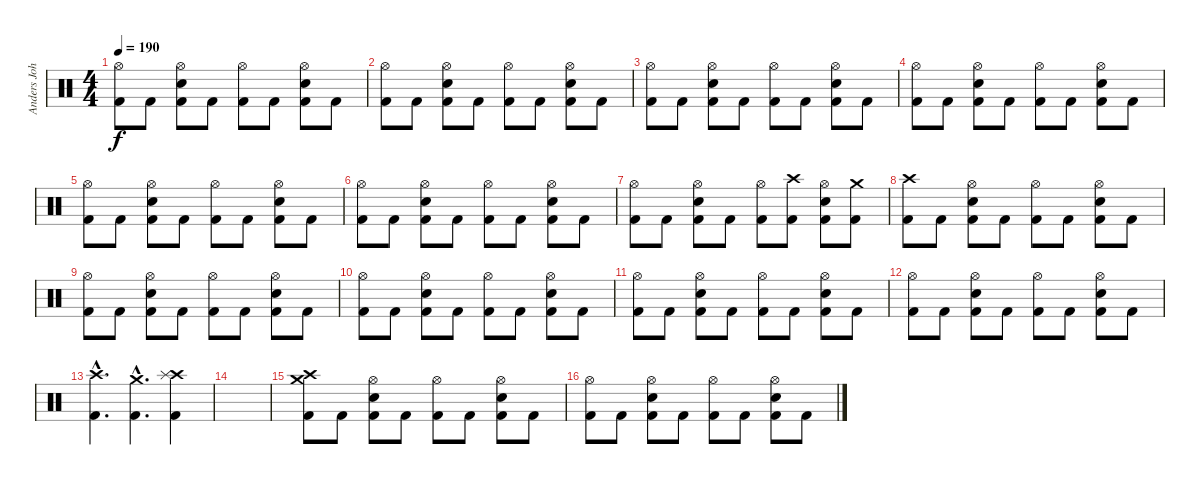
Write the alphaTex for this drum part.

\track ("Anders Johansson Drums" "Anders Joh") {instrument percussion}
\staff {score}
\articulation defaults
\ts (4 4)
\tempo 190
\clef neutral
\ks c
("Hi-Hat (open)" "Kick (hit) 2").8{dy f} "Kick (hit) 2".8 ("Hi-Hat (open)" "Snare (hit) 2" "Kick (hit) 2").8 "Kick (hit) 2".8 ("Hi-Hat (open)" "Kick (hit) 2").8 "Kick (hit) 2".8 ("Hi-Hat (open)" "Snare (hit) 2" "Kick (hit) 2").8 "Kick (hit) 2".8 |
("Hi-Hat (open)" "Kick (hit) 2").8 "Kick (hit) 2".8 ("Hi-Hat (open)" "Snare (hit) 2" "Kick (hit) 2").8 "Kick (hit) 2".8 ("Hi-Hat (open)" "Kick (hit) 2").8 "Kick (hit) 2".8 ("Hi-Hat (open)" "Snare (hit) 2" "Kick (hit) 2").8 "Kick (hit) 2".8 |
("Hi-Hat (open)" "Kick (hit) 2").8 "Kick (hit) 2".8 ("Hi-Hat (open)" "Snare (hit) 2" "Kick (hit) 2").8 "Kick (hit) 2".8 ("Hi-Hat (open)" "Kick (hit) 2").8 "Kick (hit) 2".8 ("Hi-Hat (open)" "Snare (hit) 2" "Kick (hit) 2").8 "Kick (hit) 2".8 |
("Hi-Hat (open)" "Kick (hit) 2").8 "Kick (hit) 2".8 ("Hi-Hat (open)" "Snare (hit) 2" "Kick (hit) 2").8 "Kick (hit) 2".8 ("Hi-Hat (open)" "Kick (hit) 2").8 "Kick (hit) 2".8 ("Hi-Hat (open)" "Snare (hit) 2" "Kick (hit) 2").8 "Kick (hit) 2".8 |
("Hi-Hat (open)" "Kick (hit) 2").8 "Kick (hit) 2".8 ("Hi-Hat (open)" "Snare (hit) 2" "Kick (hit) 2").8 "Kick (hit) 2".8 ("Hi-Hat (open)" "Kick (hit) 2").8 "Kick (hit) 2".8 ("Hi-Hat (open)" "Snare (hit) 2" "Kick (hit) 2").8 "Kick (hit) 2".8 |
("Hi-Hat (open)" "Kick (hit) 2").8 "Kick (hit) 2".8 ("Hi-Hat (open)" "Snare (hit) 2" "Kick (hit) 2").8 "Kick (hit) 2".8 ("Hi-Hat (open)" "Kick (hit) 2").8 "Kick (hit) 2".8 ("Hi-Hat (open)" "Snare (hit) 2" "Kick (hit) 2").8 "Kick (hit) 2".8 |
("Hi-Hat (open)" "Kick (hit) 2").8 "Kick (hit) 2".8 ("Hi-Hat (open)" "Snare (hit) 2" "Kick (hit) 2").8 "Kick (hit) 2".8 ("Hi-Hat (open)" "Kick (hit) 2").8 ("Crash high (hit)" "Kick (hit) 2").8 ("Hi-Hat (open)" "Snare (hit) 2" "Kick (hit) 2").8 ("Crash medium (hit)" "Kick (hit) 2").8 |
("Crash high (hit)" "Kick (hit) 2").8 "Kick (hit) 2".8 ("Hi-Hat (open)" "Snare (hit) 2" "Kick (hit) 2").8 "Kick (hit) 2".8 ("Hi-Hat (open)" "Kick (hit) 2").8 "Kick (hit) 2".8 ("Hi-Hat (open)" "Snare (hit) 2" "Kick (hit) 2").8 "Kick (hit) 2".8 |
("Hi-Hat (open)" "Kick (hit) 2").8 "Kick (hit) 2".8 ("Hi-Hat (open)" "Snare (hit) 2" "Kick (hit) 2").8 "Kick (hit) 2".8 ("Hi-Hat (open)" "Kick (hit) 2").8 "Kick (hit) 2".8 ("Hi-Hat (open)" "Snare (hit) 2" "Kick (hit) 2").8 "Kick (hit) 2".8 |
("Hi-Hat (open)" "Kick (hit) 2").8 "Kick (hit) 2".8 ("Hi-Hat (open)" "Snare (hit) 2" "Kick (hit) 2").8 "Kick (hit) 2".8 ("Hi-Hat (open)" "Kick (hit) 2").8 "Kick (hit) 2".8 ("Hi-Hat (open)" "Snare (hit) 2" "Kick (hit) 2").8 "Kick (hit) 2".8 |
("Hi-Hat (open)" "Kick (hit) 2").8 "Kick (hit) 2".8 ("Hi-Hat (open)" "Snare (hit) 2" "Kick (hit) 2").8 "Kick (hit) 2".8 ("Hi-Hat (open)" "Kick (hit) 2").8 "Kick (hit) 2".8 ("Hi-Hat (open)" "Snare (hit) 2" "Kick (hit) 2").8 "Kick (hit) 2".8 |
("Hi-Hat (open)" "Kick (hit) 2").8 "Kick (hit) 2".8 ("Hi-Hat (open)" "Snare (hit) 2" "Kick (hit) 2").8 "Kick (hit) 2".8 ("Hi-Hat (open)" "Kick (hit) 2").8 "Kick (hit) 2".8 ("Hi-Hat (open)" "Snare (hit) 2" "Kick (hit) 2").8 "Kick (hit) 2".8 |
("Crash high (hit)"{hac} "Kick (hit) 2"{hac}).4{d} ("Crash medium (hit)"{hac} "Kick (hit) 2"{hac}).4{d} ("Crash high (hit)" "Splash (hit)" "Kick (hit) 2").4 |
|
("Crash high (hit)" "Crash medium (hit)" "Kick (hit) 2").8 "Kick (hit) 2".8 ("Hi-Hat (open)" "Snare (hit) 2" "Kick (hit) 2").8 "Kick (hit) 2".8 ("Hi-Hat (open)" "Kick (hit) 2").8 "Kick (hit) 2".8 ("Hi-Hat (open)" "Snare (hit) 2" "Kick (hit) 2").8 "Kick (hit) 2".8 |
("Hi-Hat (open)" "Kick (hit) 2").8 "Kick (hit) 2".8 ("Hi-Hat (open)" "Snare (hit) 2" "Kick (hit) 2").8 "Kick (hit) 2".8 ("Hi-Hat (open)" "Kick (hit) 2").8 "Kick (hit) 2".8 ("Hi-Hat (open)" "Snare (hit) 2" "Kick (hit) 2").8 "Kick (hit) 2".8
